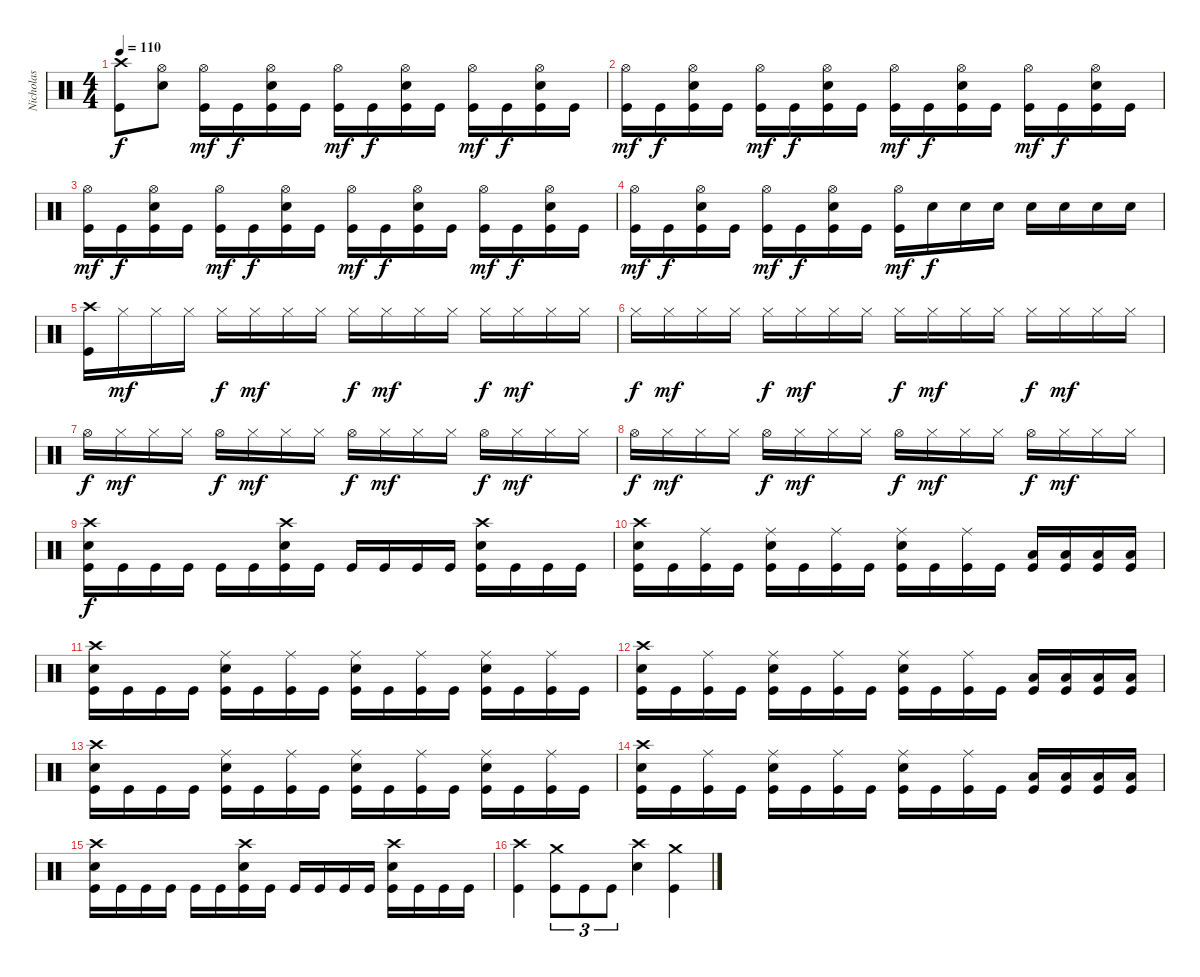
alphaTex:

\track ("Nicholas" "Nicholas") {instrument percussion}
\staff {score}
\articulation defaults
\ts (4 4)
\tempo 110
\clef neutral
\ks c
("Crash high (hit)" "Kick (hit)").8{dy f} ("Hi-Hat (open)" "Electric Snare (hit)").8 ("Hi-Hat (open)" "Kick (hit)").16{dy mf} "Kick (hit)".16{dy f} ("Hi-Hat (open)" "Electric Snare (hit)" "Kick (hit)").16 "Kick (hit)".16 ("Hi-Hat (open)" "Kick (hit)").16{dy mf} "Kick (hit)".16{dy f} ("Hi-Hat (open)" "Electric Snare (hit)" "Kick (hit)").16 "Kick (hit)".16 ("Hi-Hat (open)" "Kick (hit)").16{dy mf} "Kick (hit)".16{dy f} ("Hi-Hat (open)" "Electric Snare (hit)" "Kick (hit)").16 "Kick (hit)".16 |
("Hi-Hat (open)" "Kick (hit)").16{dy mf} "Kick (hit)".16{dy f} ("Hi-Hat (open)" "Electric Snare (hit)" "Kick (hit)").16 "Kick (hit)".16 ("Hi-Hat (open)" "Kick (hit)").16{dy mf} "Kick (hit)".16{dy f} ("Hi-Hat (open)" "Electric Snare (hit)" "Kick (hit)").16 "Kick (hit)".16 ("Hi-Hat (open)" "Kick (hit)").16{dy mf} "Kick (hit)".16{dy f} ("Hi-Hat (open)" "Electric Snare (hit)" "Kick (hit)").16 "Kick (hit)".16 ("Hi-Hat (open)" "Kick (hit)").16{dy mf} "Kick (hit)".16{dy f} ("Hi-Hat (open)" "Electric Snare (hit)" "Kick (hit)").16 "Kick (hit)".16 |
("Hi-Hat (open)" "Kick (hit)").16{dy mf} "Kick (hit)".16{dy f} ("Hi-Hat (open)" "Electric Snare (hit)" "Kick (hit)").16 "Kick (hit)".16 ("Hi-Hat (open)" "Kick (hit)").16{dy mf} "Kick (hit)".16{dy f} ("Hi-Hat (open)" "Electric Snare (hit)" "Kick (hit)").16 "Kick (hit)".16 ("Hi-Hat (open)" "Kick (hit)").16{dy mf} "Kick (hit)".16{dy f} ("Hi-Hat (open)" "Electric Snare (hit)" "Kick (hit)").16 "Kick (hit)".16 ("Hi-Hat (open)" "Kick (hit)").16{dy mf} "Kick (hit)".16{dy f} ("Hi-Hat (open)" "Electric Snare (hit)" "Kick (hit)").16 "Kick (hit)".16 |
("Hi-Hat (open)" "Kick (hit)").16{dy mf} "Kick (hit)".16{dy f} ("Hi-Hat (open)" "Electric Snare (hit)" "Kick (hit)").16 "Kick (hit)".16 ("Hi-Hat (open)" "Kick (hit)").16{dy mf} "Kick (hit)".16{dy f} ("Hi-Hat (open)" "Electric Snare (hit)" "Kick (hit)").16 "Kick (hit)".16 ("Hi-Hat (open)" "Kick (hit)").16{dy mf} "Electric Snare (hit)".16{dy f} "Electric Snare (hit)".16 "Electric Snare (hit)".16 "Electric Snare (hit)".16 "Electric Snare (hit)".16 "Electric Snare (hit)".16 "Electric Snare (hit)".16 |
("Crash high (hit)" "Kick (hit)").16 "Hi-Hat (closed)".16{dy mf} "Hi-Hat (closed)".16 "Hi-Hat (closed)".16 "Hi-Hat (closed)".16{dy f} "Hi-Hat (closed)".16{dy mf} "Hi-Hat (closed)".16 "Hi-Hat (closed)".16 "Hi-Hat (closed)".16{dy f} "Hi-Hat (closed)".16{dy mf} "Hi-Hat (closed)".16 "Hi-Hat (closed)".16 "Hi-Hat (closed)".16{dy f} "Hi-Hat (closed)".16{dy mf} "Hi-Hat (closed)".16 "Hi-Hat (closed)".16 |
"Hi-Hat (closed)".16{dy f} "Hi-Hat (closed)".16{dy mf} "Hi-Hat (closed)".16 "Hi-Hat (closed)".16 "Hi-Hat (closed)".16{dy f} "Hi-Hat (closed)".16{dy mf} "Hi-Hat (closed)".16 "Hi-Hat (closed)".16 "Hi-Hat (closed)".16{dy f} "Hi-Hat (closed)".16{dy mf} "Hi-Hat (closed)".16 "Hi-Hat (closed)".16 "Hi-Hat (closed)".16{dy f} "Hi-Hat (closed)".16{dy mf} "Hi-Hat (closed)".16 "Hi-Hat (closed)".16 |
"Hi-Hat (open)".16{dy f} "Hi-Hat (closed)".16{dy mf} "Hi-Hat (closed)".16 "Hi-Hat (closed)".16 "Hi-Hat (open)".16{dy f} "Hi-Hat (closed)".16{dy mf} "Hi-Hat (closed)".16 "Hi-Hat (closed)".16 "Hi-Hat (open)".16{dy f} "Hi-Hat (closed)".16{dy mf} "Hi-Hat (closed)".16 "Hi-Hat (closed)".16 "Hi-Hat (open)".16{dy f} "Hi-Hat (closed)".16{dy mf} "Hi-Hat (closed)".16 "Hi-Hat (closed)".16 |
"Hi-Hat (open)".16{dy f} "Hi-Hat (closed)".16{dy mf} "Hi-Hat (closed)".16 "Hi-Hat (closed)".16 "Hi-Hat (open)".16{dy f} "Hi-Hat (closed)".16{dy mf} "Hi-Hat (closed)".16 "Hi-Hat (closed)".16 "Hi-Hat (open)".16{dy f} "Hi-Hat (closed)".16{dy mf} "Hi-Hat (closed)".16 "Hi-Hat (closed)".16 "Hi-Hat (open)".16{dy f} "Hi-Hat (closed)".16{dy mf} "Hi-Hat (closed)".16 "Hi-Hat (closed)".16 |
("Crash high (hit)" "Electric Snare (hit)" "Kick (hit)").16{dy f} "Kick (hit)".16 "Kick (hit)".16 "Kick (hit)".16 "Kick (hit)".16 "Kick (hit)".16 ("Crash high (hit)" "Electric Snare (hit)" "Kick (hit)").16 "Kick (hit)".16 "Kick (hit)".16 "Kick (hit)".16 "Kick (hit)".16 "Kick (hit)".16 ("Crash high (hit)" "Electric Snare (hit)" "Kick (hit)").16 "Kick (hit)".16 "Kick (hit)".16 "Kick (hit)".16 |
("Crash high (hit)" "Electric Snare (hit)" "Kick (hit)").16 "Kick (hit)".16 ("Ride (middle)" "Kick (hit)").16 "Kick (hit)".16 ("Ride (middle)" "Electric Snare (hit)" "Kick (hit)").16 "Kick (hit)".16 ("Ride (middle)" "Kick (hit)").16 "Kick (hit)".16 ("Ride (middle)" "Electric Snare (hit)" "Kick (hit)").16 "Kick (hit)".16 ("Ride (middle)" "Kick (hit)").16 "Kick (hit)".16 ("Low Floor Tom (hit)" "Kick (hit)").16 ("Low Floor Tom (hit)" "Kick (hit)").16 ("Low Floor Tom (hit)" "Kick (hit)").16 ("Low Floor Tom (hit)" "Kick (hit)").16 |
("Crash high (hit)" "Electric Snare (hit)" "Kick (hit)").16 "Kick (hit)".16 "Kick (hit)".16 "Kick (hit)".16 ("Ride (middle)" "Electric Snare (hit)" "Kick (hit)").16 "Kick (hit)".16 ("Ride (middle)" "Kick (hit)").16 "Kick (hit)".16 ("Ride (middle)" "Electric Snare (hit)" "Kick (hit)").16 "Kick (hit)".16 ("Ride (middle)" "Kick (hit)").16 "Kick (hit)".16 ("Ride (middle)" "Electric Snare (hit)" "Kick (hit)").16 "Kick (hit)".16 ("Ride (middle)" "Kick (hit)").16 "Kick (hit)".16 |
("Crash high (hit)" "Electric Snare (hit)" "Kick (hit)").16 "Kick (hit)".16 ("Ride (middle)" "Kick (hit)").16 "Kick (hit)".16 ("Ride (middle)" "Electric Snare (hit)" "Kick (hit)").16 "Kick (hit)".16 ("Ride (middle)" "Kick (hit)").16 "Kick (hit)".16 ("Ride (middle)" "Electric Snare (hit)" "Kick (hit)").16 "Kick (hit)".16 ("Ride (middle)" "Kick (hit)").16 "Kick (hit)".16 ("Low Floor Tom (hit)" "Kick (hit)").16 ("Low Floor Tom (hit)" "Kick (hit)").16 ("Low Floor Tom (hit)" "Kick (hit)").16 ("Low Floor Tom (hit)" "Kick (hit)").16 |
("Crash high (hit)" "Electric Snare (hit)" "Kick (hit)").16 "Kick (hit)".16 "Kick (hit)".16 "Kick (hit)".16 ("Ride (middle)" "Electric Snare (hit)" "Kick (hit)").16 "Kick (hit)".16 ("Ride (middle)" "Kick (hit)").16 "Kick (hit)".16 ("Ride (middle)" "Electric Snare (hit)" "Kick (hit)").16 "Kick (hit)".16 ("Ride (middle)" "Kick (hit)").16 "Kick (hit)".16 ("Ride (middle)" "Electric Snare (hit)" "Kick (hit)").16 "Kick (hit)".16 ("Ride (middle)" "Kick (hit)").16 "Kick (hit)".16 |
("Crash high (hit)" "Electric Snare (hit)" "Kick (hit)").16 "Kick (hit)".16 ("Ride (middle)" "Kick (hit)").16 "Kick (hit)".16 ("Ride (middle)" "Electric Snare (hit)" "Kick (hit)").16 "Kick (hit)".16 ("Ride (middle)" "Kick (hit)").16 "Kick (hit)".16 ("Ride (middle)" "Electric Snare (hit)" "Kick (hit)").16 "Kick (hit)".16 ("Ride (middle)" "Kick (hit)").16 "Kick (hit)".16 ("Low Floor Tom (hit)" "Kick (hit)").16 ("Low Floor Tom (hit)" "Kick (hit)").16 ("Low Floor Tom (hit)" "Kick (hit)").16 ("Low Floor Tom (hit)" "Kick (hit)").16 |
("Crash high (hit)" "Electric Snare (hit)" "Kick (hit)").16 "Kick (hit)".16 "Kick (hit)".16 "Kick (hit)".16 "Kick (hit)".16 "Kick (hit)".16 ("Crash high (hit)" "Electric Snare (hit)" "Kick (hit)").16 "Kick (hit)".16 "Kick (hit)".16 "Kick (hit)".16 "Kick (hit)".16 "Kick (hit)".16 ("Crash high (hit)" "Electric Snare (hit)" "Kick (hit)").16 "Kick (hit)".16 "Kick (hit)".16 "Kick (hit)".16 |
("Crash high (hit)" "Kick (hit)").4 ("Crash medium (hit)" "Kick (hit)").8{tu (3 2)} "Kick (hit)".8{tu (3 2)} "Kick (hit)".8{tu (3 2)} ("Crash high (hit)" "Electric Snare (hit)").4 ("Crash medium (hit)" "Kick (hit)").4
